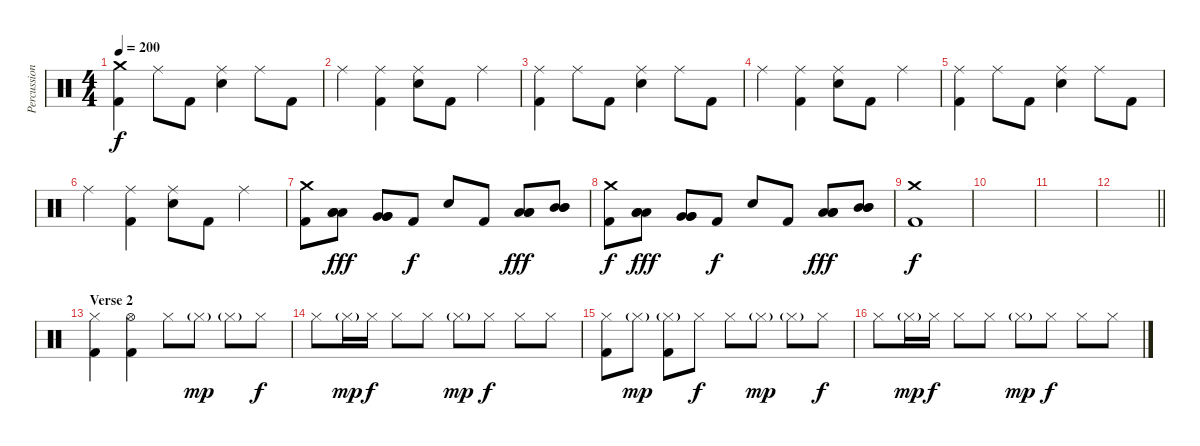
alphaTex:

\track ("Percussion" "Percussion") {instrument percussion}
\staff {score}
\articulation defaults
\ts (4 4)
\tempo 200
\clef neutral
\ks c
("Crash medium (hit)" "Kick (hit) 2").4{dy f} "Ride (middle)".8 "Kick (hit) 2".8 ("Ride (middle)" "Electric Snare (hit)").4 "Ride (middle)".8 "Kick (hit) 2".8 |
"Ride (middle)".4 ("Ride (middle)" "Kick (hit) 2").4 ("Ride (middle)" "Electric Snare (hit)").8 "Kick (hit) 2".8 "Ride (middle)".4 |
("Ride (middle)" "Kick (hit) 2").4 "Ride (middle)".8 "Kick (hit) 2".8 ("Ride (middle)" "Electric Snare (hit)").4 "Ride (middle)".8 "Kick (hit) 2".8 |
"Ride (middle)".4 ("Ride (middle)" "Kick (hit) 2").4 ("Ride (middle)" "Electric Snare (hit)").8 "Kick (hit) 2".8 "Ride (middle)".4 |
("Ride (middle)" "Kick (hit) 2").4 "Ride (middle)".8 "Kick (hit) 2".8 ("Ride (middle)" "Electric Snare (hit)").4 "Ride (middle)".8 "Kick (hit) 2".8 |
"Ride (middle)".4 ("Ride (middle)" "Kick (hit) 2").4 ("Ride (middle)" "Electric Snare (hit)").8 "Kick (hit) 2".8 "Ride (middle)".4 |
("Crash medium (hit)" "Kick (hit) 2").8 ("Low Tom (hit)" "Low Tom (hit)" "Low Tom (hit)").8{dy fff balance 12} ("Very Low Tom (hit)" "Very Low Tom (hit)" "Very Low Tom (hit)").8{balance 4} "Kick (hit) 2".8{dy f balance 8} "Electric Snare (hit)".8 "Kick (hit) 2".8 ("Low Tom (hit)" "Low Tom (hit)" "Low Tom (hit)").8{dy fff balance 12} ("Mid Tom (hit)" "Mid Tom (hit)" "Mid Tom (hit)").8{balance 16} |
("Crash medium (hit)" "Kick (hit) 2").8{dy f balance 8} ("Low Tom (hit)" "Low Tom (hit)" "Low Tom (hit)").8{dy fff balance 12} ("Very Low Tom (hit)" "Very Low Tom (hit)" "Very Low Tom (hit)").8{balance 4} "Kick (hit) 2".8{dy f balance 8} "Electric Snare (hit)".8 "Kick (hit) 2".8 ("Low Tom (hit)" "Low Tom (hit)" "Low Tom (hit)").8{dy fff balance 12} ("Mid Tom (hit)" "Mid Tom (hit)" "Mid Tom (hit)").8{balance 16} |
("Crash medium (hit)" "Kick (hit) 2").1{dy f balance 8} |
|
|
\barLineRight lightlight
|
\section ("" "Verse 2")
("Hi-Hat (closed)" "Kick (hit) 2").4{balance 8} ("Hi-Hat (open)" "Kick (hit) 2").4 "Hi-Hat (closed)".8 "Hi-Hat (closed)"{g}.8{dy mp} "Hi-Hat (closed)"{g}.8 "Hi-Hat (closed)".8{dy f} |
"Hi-Hat (closed)".8 "Hi-Hat (closed)"{g}.16{dy mp} "Hi-Hat (closed)".16{dy f} "Hi-Hat (closed)".8 "Hi-Hat (closed)".8 "Hi-Hat (closed)"{g}.8{dy mp} "Hi-Hat (closed)".8{dy f} "Hi-Hat (closed)".8 "Hi-Hat (closed)".8 |
("Hi-Hat (closed)" "Kick (hit) 2").8 "Hi-Hat (closed)"{g}.8{dy mp} ("Hi-Hat (closed)"{g} "Kick (hit) 2").8 "Hi-Hat (closed)".8{dy f} "Hi-Hat (closed)".8 "Hi-Hat (closed)"{g}.8{dy mp} "Hi-Hat (closed)"{g}.8 "Hi-Hat (closed)".8{dy f} |
"Hi-Hat (closed)".8 "Hi-Hat (closed)"{g}.16{dy mp} "Hi-Hat (closed)".16{dy f} "Hi-Hat (closed)".8 "Hi-Hat (closed)".8 "Hi-Hat (closed)"{g}.8{dy mp} "Hi-Hat (closed)".8{dy f} "Hi-Hat (closed)".8 "Hi-Hat (closed)".8
